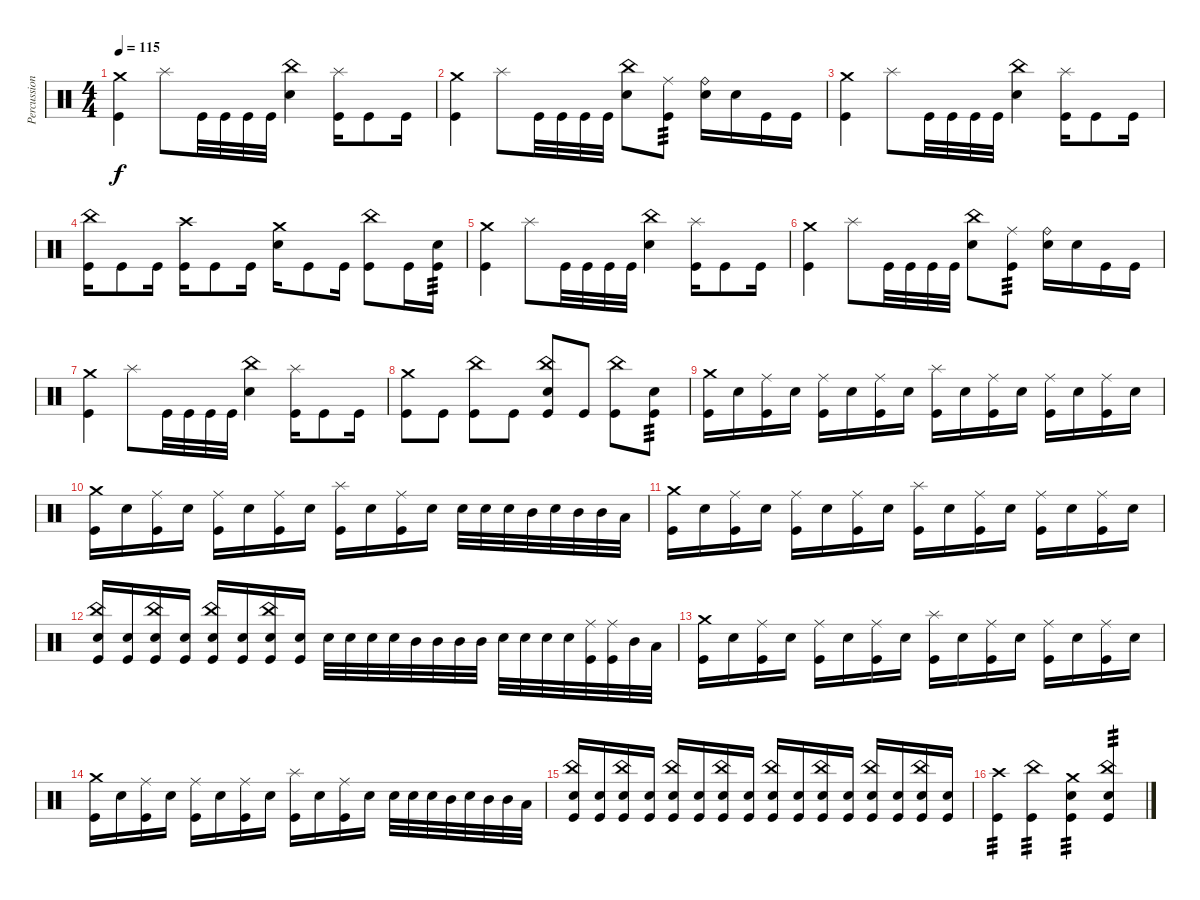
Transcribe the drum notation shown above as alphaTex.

\track ("Percussion" "Percussion") {instrument percussion}
\staff {score}
\articulation defaults
\ts (4 4)
\tempo 115
\clef neutral
\ks c
("Crash medium (hit)" "Kick (hit)").4{dy f} "Splash (hit)".8 "Kick (hit)".32 "Kick (hit)".32 "Kick (hit)".32 "Kick (hit)".32 ("China (hit)" "Electric Snare (hit)").4 ("Splash (hit)" "Kick (hit)").16 "Kick (hit)".8 "Kick (hit)".16 |
("Crash medium (hit)" "Kick (hit)").4 "Splash (hit)".8 "Kick (hit)".32 "Kick (hit)".32 "Kick (hit)".32 "Kick (hit)".32 ("China (hit)" "Electric Snare (hit)").8 ("Ride (middle)" "Kick (hit)").8{tp 3} ("Ride (bell)" "Electric Snare (hit)").16 "Electric Snare (hit)".16 "Kick (hit)".16 "Kick (hit)".16 |
("Crash medium (hit)" "Kick (hit)").4 "Splash (hit)".8 "Kick (hit)".32 "Kick (hit)".32 "Kick (hit)".32 "Kick (hit)".32 ("China (hit)" "Electric Snare (hit)").4 ("Splash (hit)" "Kick (hit)").16 "Kick (hit)".8 "Kick (hit)".16 |
("China (hit)" "Kick (hit)").16 "Kick (hit)".8 "Kick (hit)".16 ("Crash high (hit)" "Kick (hit)").16 "Kick (hit)".8 "Kick (hit)".16 ("Crash medium (hit)" "Electric Snare (hit)").16 "Kick (hit)".8 "Kick (hit)".16 ("China (hit)" "Kick (hit)").8 "Kick (hit)".16 ("Electric Snare (hit)" "Kick (hit)").16{tp 3} |
("Crash medium (hit)" "Kick (hit)").4 "Splash (hit)".8 "Kick (hit)".32 "Kick (hit)".32 "Kick (hit)".32 "Kick (hit)".32 ("China (hit)" "Electric Snare (hit)").4 ("Splash (hit)" "Kick (hit)").16 "Kick (hit)".8 "Kick (hit)".16 |
("Crash medium (hit)" "Kick (hit)").4 "Splash (hit)".8 "Kick (hit)".32 "Kick (hit)".32 "Kick (hit)".32 "Kick (hit)".32 ("China (hit)" "Electric Snare (hit)").8 ("Ride (middle)" "Kick (hit)").8{tp 3} ("Ride (bell)" "Electric Snare (hit)").16 "Electric Snare (hit)".16 "Kick (hit)".16 "Kick (hit)".16 |
("Crash medium (hit)" "Kick (hit)").4 "Splash (hit)".8 "Kick (hit)".32 "Kick (hit)".32 "Kick (hit)".32 "Kick (hit)".32 ("China (hit)" "Electric Snare (hit)").4 ("Splash (hit)" "Kick (hit)").16 "Kick (hit)".8 "Kick (hit)".16 |
("Crash medium (hit)" "Kick (hit)").8 "Kick (hit)".8 ("China (hit)" "Kick (hit)").8 "Kick (hit)".8 ("China (hit)" "Electric Snare (hit)" "Kick (hit)").8 "Kick (hit)".8 ("China (hit)" "Kick (hit)").8 ("Electric Snare (hit)" "Kick (hit)").8{tp 3} |
("Crash medium (hit)" "Kick (hit)").16 "Electric Snare (hit)".16 ("Ride (middle)" "Kick (hit)").16 "Electric Snare (hit)".16 ("Ride (middle)" "Kick (hit)").16 "Electric Snare (hit)".16 ("Ride (middle)" "Kick (hit)").16 "Electric Snare (hit)".16 ("Splash (hit)" "Kick (hit)").16 "Electric Snare (hit)".16 ("Ride (middle)" "Kick (hit)").16 "Electric Snare (hit)".16 ("Ride (middle)" "Kick (hit)").16 "Electric Snare (hit)".16 ("Ride (middle)" "Kick (hit)").16 "Electric Snare (hit)".16 |
("Crash medium (hit)" "Kick (hit)").16 "Electric Snare (hit)".16 ("Ride (middle)" "Kick (hit)").16 "Electric Snare (hit)".16 ("Ride (middle)" "Kick (hit)").16 "Electric Snare (hit)".16 ("Ride (middle)" "Kick (hit)").16 "Electric Snare (hit)".16 ("Splash (hit)" "Kick (hit)").16 "Electric Snare (hit)".16 ("Ride (middle)" "Kick (hit)").16 "Electric Snare (hit)".16 "Electric Snare (hit)".32 "Electric Snare (hit)".32 "Electric Snare (hit)".32 "Mid Tom (hit)".32 "Electric Snare (hit)".32 "Mid Tom (hit)".32 "Mid Tom (hit)".32 "Low Tom (hit)".32 |
("Crash medium (hit)" "Kick (hit)").16 "Electric Snare (hit)".16 ("Ride (middle)" "Kick (hit)").16 "Electric Snare (hit)".16 ("Ride (middle)" "Kick (hit)").16 "Electric Snare (hit)".16 ("Ride (middle)" "Kick (hit)").16 "Electric Snare (hit)".16 ("Splash (hit)" "Kick (hit)").16 "Electric Snare (hit)".16 ("Ride (middle)" "Kick (hit)").16 "Electric Snare (hit)".16 ("Ride (middle)" "Kick (hit)").16 "Electric Snare (hit)".16 ("Ride (middle)" "Kick (hit)").16 "Electric Snare (hit)".16 |
("China (hit)" "Electric Snare (hit)" "Kick (hit)").16 ("Electric Snare (hit)" "Kick (hit)").16 ("China (hit)" "Electric Snare (hit)" "Kick (hit)").16 ("Electric Snare (hit)" "Kick (hit)").16 ("China (hit)" "Electric Snare (hit)" "Kick (hit)").16 ("Electric Snare (hit)" "Kick (hit)").16 ("China (hit)" "Electric Snare (hit)" "Kick (hit)").16 ("Electric Snare (hit)" "Kick (hit)").16 "Electric Snare (hit)".32 "Electric Snare (hit)".32 "Electric Snare (hit)".32 "Electric Snare (hit)".32 "Mid Tom (hit)".32 "Mid Tom (hit)".32 "Mid Tom (hit)".32 "Mid Tom (hit)".32 "Electric Snare (hit)".32 "Electric Snare (hit)".32 "Electric Snare (hit)".32 "Electric Snare (hit)".32 ("Ride (middle)" "Kick (hit)").32 ("Ride (middle)" "Kick (hit)").32 "Mid Tom (hit)".32 "Low Tom (hit)".32 |
("Crash medium (hit)" "Kick (hit)").16 "Electric Snare (hit)".16 ("Ride (middle)" "Kick (hit)").16 "Electric Snare (hit)".16 ("Ride (middle)" "Kick (hit)").16 "Electric Snare (hit)".16 ("Ride (middle)" "Kick (hit)").16 "Electric Snare (hit)".16 ("Splash (hit)" "Kick (hit)").16 "Electric Snare (hit)".16 ("Ride (middle)" "Kick (hit)").16 "Electric Snare (hit)".16 ("Ride (middle)" "Kick (hit)").16 "Electric Snare (hit)".16 ("Ride (middle)" "Kick (hit)").16 "Electric Snare (hit)".16 |
("Crash medium (hit)" "Kick (hit)").16 "Electric Snare (hit)".16 ("Ride (middle)" "Kick (hit)").16 "Electric Snare (hit)".16 ("Ride (middle)" "Kick (hit)").16 "Electric Snare (hit)".16 ("Ride (middle)" "Kick (hit)").16 "Electric Snare (hit)".16 ("Splash (hit)" "Kick (hit)").16 "Electric Snare (hit)".16 ("Ride (middle)" "Kick (hit)").16 "Electric Snare (hit)".16 "Electric Snare (hit)".32 "Electric Snare (hit)".32 "Electric Snare (hit)".32 "Mid Tom (hit)".32 "Electric Snare (hit)".32 "Mid Tom (hit)".32 "Mid Tom (hit)".32 "Low Tom (hit)".32 |
("China (hit)" "Electric Snare (hit)" "Kick (hit)").16 ("Electric Snare (hit)" "Kick (hit)").16 ("China (hit)" "Electric Snare (hit)" "Kick (hit)").16 ("Electric Snare (hit)" "Kick (hit)").16 ("China (hit)" "Electric Snare (hit)" "Kick (hit)").16 ("Electric Snare (hit)" "Kick (hit)").16 ("China (hit)" "Electric Snare (hit)" "Kick (hit)").16 ("Electric Snare (hit)" "Kick (hit)").16 ("China (hit)" "Electric Snare (hit)" "Kick (hit)").16 ("Electric Snare (hit)" "Kick (hit)").16 ("China (hit)" "Electric Snare (hit)" "Kick (hit)").16 ("Electric Snare (hit)" "Kick (hit)").16 ("China (hit)" "Electric Snare (hit)" "Kick (hit)").16 ("Electric Snare (hit)" "Kick (hit)").16 ("China (hit)" "Electric Snare (hit)" "Kick (hit)").16 ("Electric Snare (hit)" "Kick (hit)").16 |
("Crash high (hit)" "Kick (hit)").4{tp 3} ("China (hit)" "Kick (hit)").4{tp 3} ("Crash medium (hit)" "Electric Snare (hit)" "Kick (hit)").4{tp 3} ("China (hit)" "Electric Snare (hit)" "Kick (hit)").4{tp 3}
